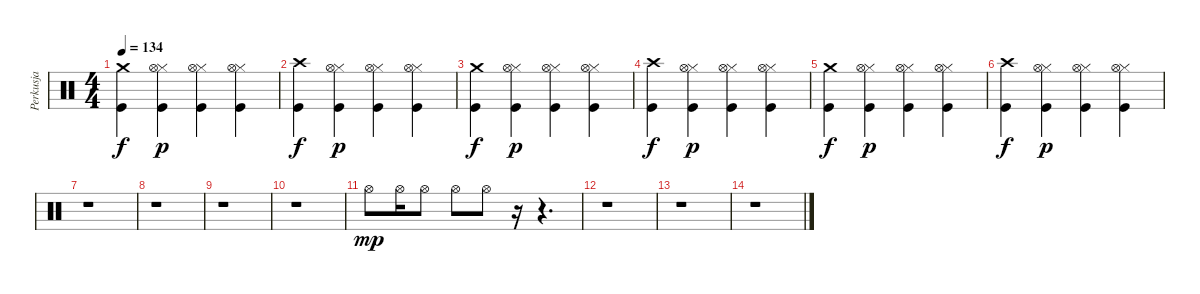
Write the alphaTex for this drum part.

\track ("Perkusja" "Perkusja") {instrument percussion}
\staff {score}
\articulation defaults
\ts (4 4)
\tempo 134
\clef neutral
\ks c
("Crash medium (hit)" "Kick (hit)").4{dy f} ("Hi-Hat (closed)" "Hi-Hat (open)" "Kick (hit)").4{dy p} ("Hi-Hat (closed)" "Hi-Hat (open)" "Kick (hit)").4 ("Hi-Hat (closed)" "Hi-Hat (open)" "Kick (hit)").4 |
("Crash high (hit)" "Kick (hit)").4{dy f} ("Hi-Hat (closed)" "Hi-Hat (open)" "Kick (hit)").4{dy p} ("Hi-Hat (closed)" "Hi-Hat (open)" "Kick (hit)").4 ("Hi-Hat (closed)" "Hi-Hat (open)" "Kick (hit)").4 |
("Crash medium (hit)" "Kick (hit)").4{dy f} ("Hi-Hat (closed)" "Hi-Hat (open)" "Kick (hit)").4{dy p} ("Hi-Hat (closed)" "Hi-Hat (open)" "Kick (hit)").4 ("Hi-Hat (closed)" "Hi-Hat (open)" "Kick (hit)").4 |
("Crash high (hit)" "Kick (hit)").4{dy f} ("Hi-Hat (closed)" "Hi-Hat (open)" "Kick (hit)").4{dy p} ("Hi-Hat (closed)" "Hi-Hat (open)" "Kick (hit)").4 ("Hi-Hat (closed)" "Hi-Hat (open)" "Kick (hit)").4 |
("Crash medium (hit)" "Kick (hit)").4{dy f} ("Hi-Hat (closed)" "Hi-Hat (open)" "Kick (hit)").4{dy p} ("Hi-Hat (closed)" "Hi-Hat (open)" "Kick (hit)").4 ("Hi-Hat (closed)" "Hi-Hat (open)" "Kick (hit)").4 |
("Crash high (hit)" "Kick (hit)").4{dy f} ("Hi-Hat (closed)" "Hi-Hat (open)" "Kick (hit)").4{dy p} ("Hi-Hat (closed)" "Hi-Hat (open)" "Kick (hit)").4 ("Hi-Hat (closed)" "Hi-Hat (open)" "Kick (hit)").4 |
r.1 |
r.1 |
r.1 |
r.1 |
"Hi-Hat (open)".8{dy mp} "Hi-Hat (open)".16 "Hi-Hat (open)".8 "Hi-Hat (open)".8 "Hi-Hat (open)".8 r.16 r.4{d} |
r.1 |
r.1 |
r.1
